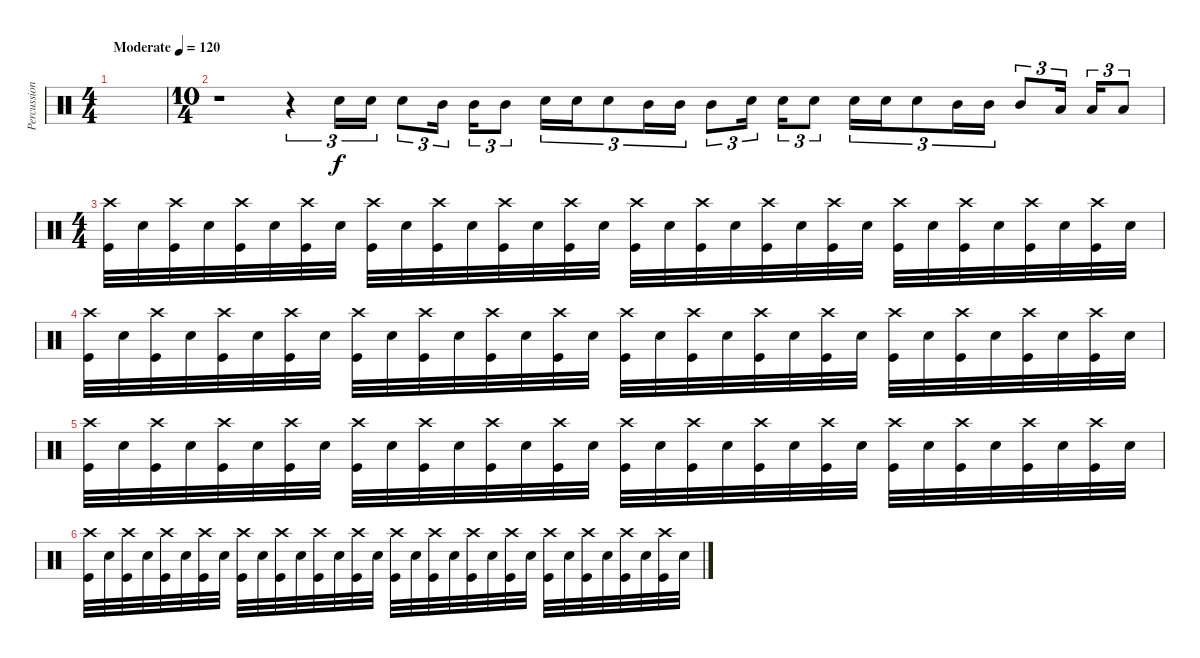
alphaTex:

\track ("Percussion" "Percussion") {instrument percussion}
\staff {score}
\articulation defaults
\ts (4 4)
\tempo (120 "Moderate")
\clef neutral
\ks c
|
\ts (10 4)
r.1 r.4{tu (3 2)} "Snare (hit) 2".16{tu (3 2)} "Snare (hit) 2".16{tu (3 2)} "Snare (hit) 2".8{tu (3 2)} "Mid Tom (hit)".16{tu (3 2) beam splitsecondary} "Mid Tom (hit)".16{tu (3 2)} "Mid Tom (hit)".8{tu (3 2)} "Snare (hit) 2".16{tu (3 2)} "Snare (hit) 2".16{tu (3 2)} "Snare (hit) 2".8{tu (3 2)} "Mid Tom (hit)".16{tu (3 2)} "Mid Tom (hit)".16{tu (3 2)} "Mid Tom (hit)".8{tu (3 2)} "Snare (hit) 2".16{tu (3 2) beam splitsecondary} "Snare (hit) 2".16{tu (3 2)} "Snare (hit) 2".8{tu (3 2)} "Snare (hit) 2".16{tu (3 2)} "Snare (hit) 2".16{tu (3 2)} "Snare (hit) 2".8{tu (3 2)} "Mid Tom (hit)".16{tu (3 2)} "Mid Tom (hit)".16{tu (3 2)} "Mid Tom (hit)".8{tu (3 2)} "Low Tom (hit)".16{tu (3 2) beam splitsecondary} "Low Tom (hit)".16{tu (3 2)} "Low Tom (hit)".8{tu (3 2)} |
\ts (4 4)
("Crash high (hit)" "Kick (hit)").32 "Snare (hit) 2".32 ("Crash high (hit)" "Kick (hit)").32 "Snare (hit) 2".32 ("Crash high (hit)" "Kick (hit)").32 "Snare (hit) 2".32 ("Crash high (hit)" "Kick (hit)").32 "Snare (hit) 2".32 ("Crash high (hit)" "Kick (hit)").32 "Snare (hit) 2".32 ("Crash high (hit)" "Kick (hit)").32 "Snare (hit) 2".32 ("Crash high (hit)" "Kick (hit)").32 "Snare (hit) 2".32 ("Crash high (hit)" "Kick (hit)").32 "Snare (hit) 2".32 ("Crash high (hit)" "Kick (hit)").32 "Snare (hit) 2".32 ("Crash high (hit)" "Kick (hit)").32 "Snare (hit) 2".32 ("Crash high (hit)" "Kick (hit)").32 "Snare (hit) 2".32 ("Crash high (hit)" "Kick (hit)").32 "Snare (hit) 2".32 ("Crash high (hit)" "Kick (hit)").32 "Snare (hit) 2".32 ("Crash high (hit)" "Kick (hit)").32 "Snare (hit) 2".32 ("Crash high (hit)" "Kick (hit)").32 "Snare (hit) 2".32 ("Crash high (hit)" "Kick (hit)").32 "Snare (hit) 2".32 |
("Crash high (hit)" "Kick (hit)").32 "Snare (hit) 2".32 ("Crash high (hit)" "Kick (hit)").32 "Snare (hit) 2".32 ("Crash high (hit)" "Kick (hit)").32 "Snare (hit) 2".32 ("Crash high (hit)" "Kick (hit)").32 "Snare (hit) 2".32 ("Crash high (hit)" "Kick (hit)").32 "Snare (hit) 2".32 ("Crash high (hit)" "Kick (hit)").32 "Snare (hit) 2".32 ("Crash high (hit)" "Kick (hit)").32 "Snare (hit) 2".32 ("Crash high (hit)" "Kick (hit)").32 "Snare (hit) 2".32 ("Crash high (hit)" "Kick (hit)").32 "Snare (hit) 2".32 ("Crash high (hit)" "Kick (hit)").32 "Snare (hit) 2".32 ("Crash high (hit)" "Kick (hit)").32 "Snare (hit) 2".32 ("Crash high (hit)" "Kick (hit)").32 "Snare (hit) 2".32 ("Crash high (hit)" "Kick (hit)").32 "Snare (hit) 2".32 ("Crash high (hit)" "Kick (hit)").32 "Snare (hit) 2".32 ("Crash high (hit)" "Kick (hit)").32 "Snare (hit) 2".32 ("Crash high (hit)" "Kick (hit)").32 "Snare (hit) 2".32 |
("Crash high (hit)" "Kick (hit)").32 "Snare (hit) 2".32 ("Crash high (hit)" "Kick (hit)").32 "Snare (hit) 2".32 ("Crash high (hit)" "Kick (hit)").32 "Snare (hit) 2".32 ("Crash high (hit)" "Kick (hit)").32 "Snare (hit) 2".32 ("Crash high (hit)" "Kick (hit)").32 "Snare (hit) 2".32 ("Crash high (hit)" "Kick (hit)").32 "Snare (hit) 2".32 ("Crash high (hit)" "Kick (hit)").32 "Snare (hit) 2".32 ("Crash high (hit)" "Kick (hit)").32 "Snare (hit) 2".32 ("Crash high (hit)" "Kick (hit)").32 "Snare (hit) 2".32 ("Crash high (hit)" "Kick (hit)").32 "Snare (hit) 2".32 ("Crash high (hit)" "Kick (hit)").32 "Snare (hit) 2".32 ("Crash high (hit)" "Kick (hit)").32 "Snare (hit) 2".32 ("Crash high (hit)" "Kick (hit)").32 "Snare (hit) 2".32 ("Crash high (hit)" "Kick (hit)").32 "Snare (hit) 2".32 ("Crash high (hit)" "Kick (hit)").32 "Snare (hit) 2".32 ("Crash high (hit)" "Kick (hit)").32 "Snare (hit) 2".32 |
("Crash high (hit)" "Kick (hit)").32 "Snare (hit) 2".32 ("Crash high (hit)" "Kick (hit)").32 "Snare (hit) 2".32 ("Crash high (hit)" "Kick (hit)").32 "Snare (hit) 2".32 ("Crash high (hit)" "Kick (hit)").32 "Snare (hit) 2".32 ("Crash high (hit)" "Kick (hit)").32 "Snare (hit) 2".32 ("Crash high (hit)" "Kick (hit)").32 "Snare (hit) 2".32 ("Crash high (hit)" "Kick (hit)").32 "Snare (hit) 2".32 ("Crash high (hit)" "Kick (hit)").32 "Snare (hit) 2".32 ("Crash high (hit)" "Kick (hit)").32 "Snare (hit) 2".32 ("Crash high (hit)" "Kick (hit)").32 "Snare (hit) 2".32 ("Crash high (hit)" "Kick (hit)").32 "Snare (hit) 2".32 ("Crash high (hit)" "Kick (hit)").32 "Snare (hit) 2".32 ("Crash high (hit)" "Kick (hit)").32 "Snare (hit) 2".32 ("Crash high (hit)" "Kick (hit)").32 "Snare (hit) 2".32 ("Crash high (hit)" "Kick (hit)").32 "Snare (hit) 2".32 ("Crash high (hit)" "Kick (hit)").32 "Snare (hit) 2".32
